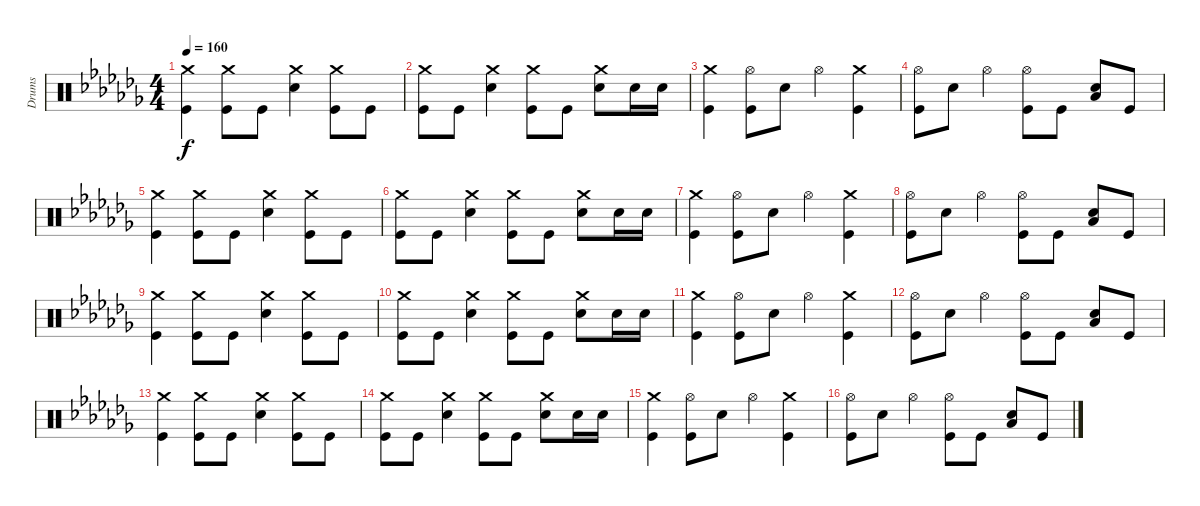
\track ("Drums" "Drums") {instrument percussion}
\staff {score}
\articulation defaults
\ts (4 4)
\tempo 160
\clef neutral
\ks cb
("Crash medium (hit)" "Kick (hit)").4{dy f} ("Crash medium (hit)" "Kick (hit)").8 "Kick (hit)".8 ("Crash medium (hit)" "Electric Snare (hit)").4 ("Crash medium (hit)" "Kick (hit)").8 "Kick (hit)".8 |
("Crash medium (hit)" "Kick (hit)").8 "Kick (hit)".8 ("Crash medium (hit)" "Electric Snare (hit)").4 ("Crash medium (hit)" "Kick (hit)").8 "Kick (hit)".8 ("Crash medium (hit)" "Electric Snare (hit)").8 "Electric Snare (hit)".16 "Electric Snare (hit)".16 |
("Crash medium (hit)" "Kick (hit)").4 ("Hi-Hat (open)" "Kick (hit)").8 "Electric Snare (hit)".8 "Hi-Hat (open)".4 ("Crash medium (hit)" "Kick (hit)").4 |
("Hi-Hat (open)" "Kick (hit)").8 "Electric Snare (hit)".8 "Hi-Hat (open)".4 ("Hi-Hat (open)" "Kick (hit)").8 "Kick (hit)".8 ("Electric Snare (hit)" "Low Floor Tom (hit)").8 "Kick (hit)".8 |
("Crash medium (hit)" "Kick (hit)").4 ("Crash medium (hit)" "Kick (hit)").8 "Kick (hit)".8 ("Crash medium (hit)" "Electric Snare (hit)").4 ("Crash medium (hit)" "Kick (hit)").8 "Kick (hit)".8 |
("Crash medium (hit)" "Kick (hit)").8 "Kick (hit)".8 ("Crash medium (hit)" "Electric Snare (hit)").4 ("Crash medium (hit)" "Kick (hit)").8 "Kick (hit)".8 ("Crash medium (hit)" "Electric Snare (hit)").8 "Electric Snare (hit)".16 "Electric Snare (hit)".16 |
("Crash medium (hit)" "Kick (hit)").4 ("Hi-Hat (open)" "Kick (hit)").8 "Electric Snare (hit)".8 "Hi-Hat (open)".4 ("Crash medium (hit)" "Kick (hit)").4 |
("Hi-Hat (open)" "Kick (hit)").8 "Electric Snare (hit)".8 "Hi-Hat (open)".4 ("Hi-Hat (open)" "Kick (hit)").8 "Kick (hit)".8 ("Electric Snare (hit)" "Low Floor Tom (hit)").8 "Kick (hit)".8 |
("Crash medium (hit)" "Kick (hit)").4 ("Crash medium (hit)" "Kick (hit)").8 "Kick (hit)".8 ("Crash medium (hit)" "Electric Snare (hit)").4 ("Crash medium (hit)" "Kick (hit)").8 "Kick (hit)".8 |
("Crash medium (hit)" "Kick (hit)").8 "Kick (hit)".8 ("Crash medium (hit)" "Electric Snare (hit)").4 ("Crash medium (hit)" "Kick (hit)").8 "Kick (hit)".8 ("Crash medium (hit)" "Electric Snare (hit)").8 "Electric Snare (hit)".16 "Electric Snare (hit)".16 |
("Crash medium (hit)" "Kick (hit)").4 ("Hi-Hat (open)" "Kick (hit)").8 "Electric Snare (hit)".8 "Hi-Hat (open)".4 ("Crash medium (hit)" "Kick (hit)").4 |
("Hi-Hat (open)" "Kick (hit)").8 "Electric Snare (hit)".8 "Hi-Hat (open)".4 ("Hi-Hat (open)" "Kick (hit)").8 "Kick (hit)".8 ("Electric Snare (hit)" "Low Floor Tom (hit)").8 "Kick (hit)".8 |
("Crash medium (hit)" "Kick (hit)").4 ("Crash medium (hit)" "Kick (hit)").8 "Kick (hit)".8 ("Crash medium (hit)" "Electric Snare (hit)").4 ("Crash medium (hit)" "Kick (hit)").8 "Kick (hit)".8 |
("Crash medium (hit)" "Kick (hit)").8 "Kick (hit)".8 ("Crash medium (hit)" "Electric Snare (hit)").4 ("Crash medium (hit)" "Kick (hit)").8 "Kick (hit)".8 ("Crash medium (hit)" "Electric Snare (hit)").8 "Electric Snare (hit)".16 "Electric Snare (hit)".16 |
("Crash medium (hit)" "Kick (hit)").4 ("Hi-Hat (open)" "Kick (hit)").8 "Electric Snare (hit)".8 "Hi-Hat (open)".4 ("Crash medium (hit)" "Kick (hit)").4 |
("Hi-Hat (open)" "Kick (hit)").8 "Electric Snare (hit)".8 "Hi-Hat (open)".4 ("Hi-Hat (open)" "Kick (hit)").8 "Kick (hit)".8 ("Electric Snare (hit)" "Low Floor Tom (hit)").8 "Kick (hit)".8
